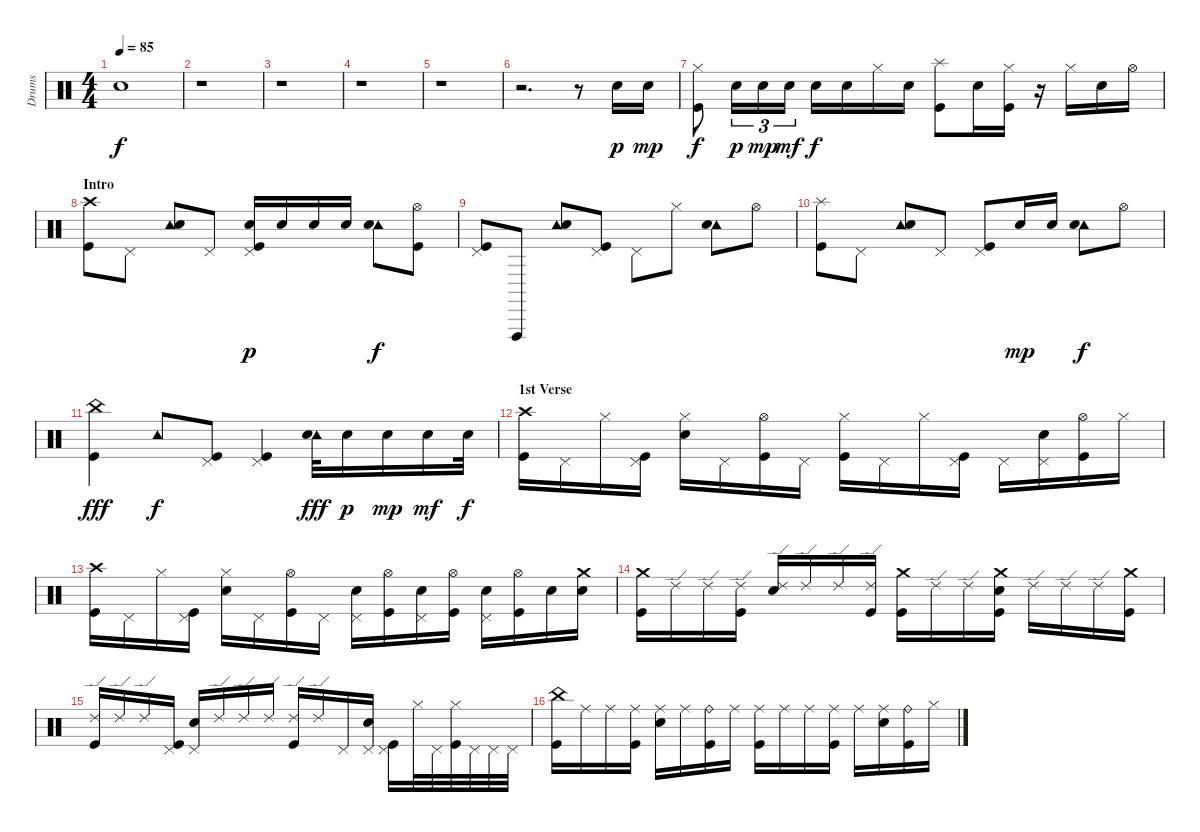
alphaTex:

\track ("Drums" "Drums") {instrument percussion}
\staff {score}
\articulation defaults
\ts (4 4)
\tempo 85
\clef neutral
\ks c "Snare (hit)"{t}.1{dy f}
|
r.1 |
r.1 |
r.1 |
r.1 |
r.2{d volume 15} r.8 "Electric Snare (hit)".16{dy p} "Electric Snare (hit)".16{dy mp} |
("Hi-Hat (closed)" "Kick (hit)").8{dy f} "Electric Snare (hit)".16{tu (3 2) dy p} "Electric Snare (hit)".16{tu (3 2) dy mp} "Electric Snare (hit)".16{tu (3 2) dy mf} "Electric Snare (hit)".16{dy f} "Electric Snare (hit)".16 "Hi-Hat (closed)".16 "Electric Snare (hit)".16 ("Splash (hit)" "Kick (hit)").8 "Electric Snare (hit)".16 ("Hi-Hat (closed)" "Kick (hit)").16 r.16 "Hi-Hat (closed)".16 "Electric Snare (hit)".16 "Hi-Hat (open)".16 |
\section ("" "Intro")
("Crash high (hit)" "Kick (hit)").8 "Pedal Hi-Hat (hit)".8 ("Tambourine (hit)" "Electric Snare (hit)").8 "Pedal Hi-Hat (hit)".8 ("Pedal Hi-Hat (hit)" "Electric Snare (hit)" "Kick (hit)").16{dy p} "Electric Snare (hit)".16 "Electric Snare (hit)".16 "Electric Snare (hit)".16 ("Tambourine (hit)" "Electric Snare (hit)").8{dy f} ("Hi-Hat (open)" "Kick (hit)").8 |
("Pedal Hi-Hat (hit)" "Kick (hit)").8 "Vibraslap (hit)".8 ("Tambourine (hit)" "Electric Snare (hit)").8 ("Pedal Hi-Hat (hit)" "Kick (hit)").8 "Pedal Hi-Hat (hit)".8 "Hi-Hat (closed)".8 ("Tambourine (hit)" "Electric Snare (hit)").8 "Hi-Hat (open)".8 |
("Splash (hit)" "Kick (hit)").8 "Pedal Hi-Hat (hit)".8 ("Tambourine (hit)" "Electric Snare (hit)").8 "Pedal Hi-Hat (hit)".8 ("Pedal Hi-Hat (hit)" "Kick (hit)").8 "Electric Snare (hit)".16{dy mp} "Electric Snare (hit)".16 ("Tambourine (hit)" "Electric Snare (hit)").8{dy f} "Hi-Hat (open)".8 |
("China (hit)" "Kick (hit)").4{dy fff} "Tambourine (hit)".8{dy f} ("Pedal Hi-Hat (hit)" "Kick (hit)").8 ("Pedal Hi-Hat (hit)" "Kick (hit)").4 ("Tambourine (hit)" "Electric Snare (hit)").32{dy fff} "Electric Snare (hit)".16{dy p} "Electric Snare (hit)".16{dy mp} "Electric Snare (hit)".16{dy mf} "Electric Snare (hit)".32{dy f} |
\section ("" "1st Verse")
("Crash high (hit)" "Kick (hit)").16 "Pedal Hi-Hat (hit)".16 "Hi-Hat (closed)".16 ("Pedal Hi-Hat (hit)" "Kick (hit)").16 ("Hi-Hat (closed)" "Electric Snare (hit)").16 "Pedal Hi-Hat (hit)".16 ("Hi-Hat (open)" "Kick (hit)").16 "Pedal Hi-Hat (hit)".16 ("Hi-Hat (closed)" "Kick (hit)").16 "Pedal Hi-Hat (hit)".16 "Hi-Hat (closed)".16 ("Pedal Hi-Hat (hit)" "Kick (hit)").16 "Pedal Hi-Hat (hit)".16 ("Pedal Hi-Hat (hit)" "Electric Snare (hit)").16 ("Hi-Hat (open)" "Kick (hit)").16 "Hi-Hat (closed)".16 |
("Crash high (hit)" "Kick (hit)").16 "Pedal Hi-Hat (hit)".16 "Hi-Hat (closed)".16 ("Pedal Hi-Hat (hit)" "Kick (hit)").16 ("Hi-Hat (closed)" "Electric Snare (hit)").16 "Pedal Hi-Hat (hit)".16 ("Hi-Hat (open)" "Kick (hit)").16 "Pedal Hi-Hat (hit)".16 ("Pedal Hi-Hat (hit)" "Electric Snare (hit)").16 ("Hi-Hat (open)" "Kick (hit)").16 ("Pedal Hi-Hat (hit)" "Electric Snare (hit)").16 ("Hi-Hat (open)" "Kick (hit)").16 ("Pedal Hi-Hat (hit)" "Electric Snare (hit)").16 ("Hi-Hat (open)" "Kick (hit)").16 "Electric Snare (hit)".16 ("Crash medium (hit)" "Electric Snare (hit)").16 |
("Crash medium (hit)" "Kick (hit)").16 "Ride (edge) 2".16 "Ride (edge) 2".16 ("Ride (edge) 2" "Kick (hit)").16 ("Ride (edge) 2" "Electric Snare (hit)").16 "Ride (edge) 2".16 "Ride (edge) 2".16 ("Ride (edge) 2" "Kick (hit)").16 ("Crash medium (hit)" "Kick (hit)").16 "Ride (edge) 2".16 "Ride (edge) 2".16 ("Crash medium (hit)" "Electric Snare (hit)" "Kick (hit)").16 "Ride (edge) 2".16 "Ride (edge) 2".16 "Ride (edge) 2".16 ("Crash medium (hit)" "Kick (hit)").16 |
("Ride (edge) 2" "Kick (hit)").16 "Ride (edge) 2".16 "Ride (edge) 2".16 ("Pedal Hi-Hat (hit)" "Kick (hit)").16 ("Pedal Hi-Hat (hit)" "Electric Snare (hit)").16 "Ride (edge) 2".16 "Ride (edge) 2".16 "Ride (edge) 2".16 ("Ride (edge) 2" "Kick (hit)").16 "Ride (edge) 2".16 "Pedal Hi-Hat (hit)".16 ("Pedal Hi-Hat (hit)" "Electric Snare (hit)").16 ("Pedal Hi-Hat (hit)" "Kick (hit)").16 "Hi-Hat (closed)".32 "Pedal Hi-Hat (hit)".32 ("Hi-Hat (closed)" "Kick (hit)").32 "Pedal Hi-Hat (hit)".32 "Pedal Hi-Hat (hit)".32 "Pedal Hi-Hat (hit)".32 |
("China (hit)" "Kick (hit)").16 "Ride (middle)".16 "Ride (middle)".16 ("Ride (middle)" "Kick (hit)").16 ("Ride (middle)" "Electric Snare (hit)").16 "Ride (middle)".16 ("Ride (bell)" "Kick (hit)").16 "Ride (middle)".16 ("Ride (middle)" "Kick (hit)").16 "Ride (middle)".16 "Ride (middle)".16 ("Ride (middle)" "Kick (hit)").16 "Ride (middle)".16 ("Ride (middle)" "Electric Snare (hit)").16 ("Ride (bell)" "Kick (hit)").16 "Hi-Hat (closed)".16
